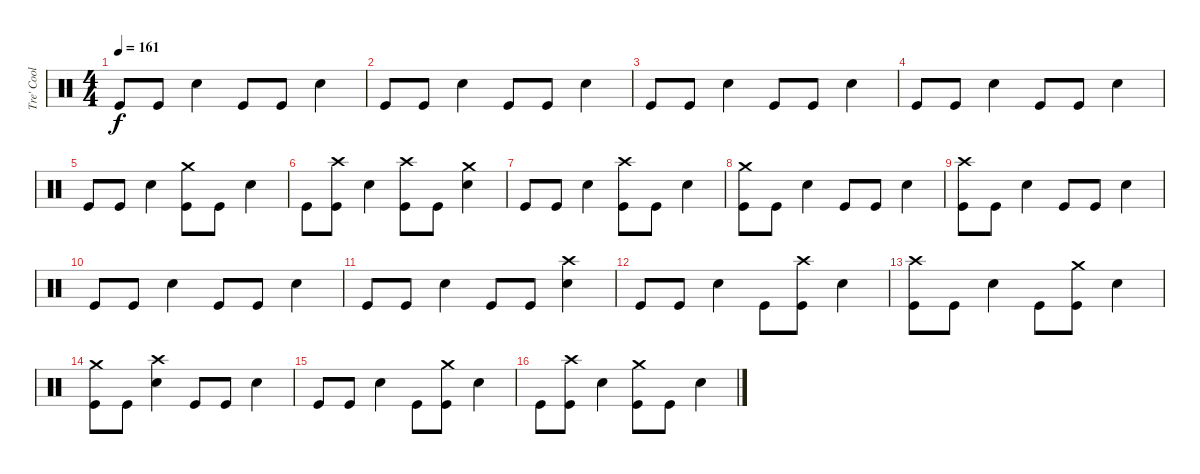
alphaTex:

\track ("Tre' Cool" "Tre' Cool") {instrument percussion}
\staff {score}
\articulation defaults
\ts (4 4)
\tempo 161
\clef neutral
\ks c "Kick (hit)".8{dy f} "Kick (hit)".8 "Snare (hit) 2".4 "Kick (hit)".8 "Kick (hit)".8 "Snare (hit) 2".4
|
"Kick (hit)".8 "Kick (hit)".8 "Snare (hit) 2".4 "Kick (hit)".8 "Kick (hit)".8 "Snare (hit) 2".4 |
"Kick (hit)".8 "Kick (hit)".8 "Snare (hit) 2".4 "Kick (hit)".8 "Kick (hit)".8 "Snare (hit) 2".4 |
"Kick (hit)".8 "Kick (hit)".8 "Snare (hit) 2".4 "Kick (hit)".8 "Kick (hit)".8 "Snare (hit) 2".4 |
"Kick (hit)".8 "Kick (hit)".8 "Snare (hit) 2".4 ("Kick (hit)" "Crash medium (hit)").8 "Kick (hit)".8 "Snare (hit) 2".4 |
"Kick (hit)".8 ("Kick (hit)" "Crash high (hit)").8 "Snare (hit) 2".4 ("Kick (hit)" "Crash high (hit)").8 "Kick (hit)".8 ("Snare (hit) 2" "Crash medium (hit)").4 |
"Kick (hit)".8 "Kick (hit)".8 "Snare (hit) 2".4 ("Crash high (hit)" "Kick (hit)").8 "Kick (hit)".8 "Snare (hit) 2".4 |
("Crash medium (hit)" "Kick (hit)").8 "Kick (hit)".8 "Snare (hit) 2".4 "Kick (hit)".8 "Kick (hit)".8 "Snare (hit) 2".4 |
("Crash high (hit)" "Kick (hit)").8 "Kick (hit)".8 "Snare (hit) 2".4 "Kick (hit)".8 "Kick (hit)".8 "Snare (hit) 2".4 |
"Kick (hit)".8 "Kick (hit)".8 "Snare (hit) 2".4 "Kick (hit)".8 "Kick (hit)".8 "Snare (hit) 2".4 |
"Kick (hit)".8 "Kick (hit)".8 "Snare (hit) 2".4 "Kick (hit)".8 "Kick (hit)".8 ("Snare (hit) 2" "Crash high (hit)").4 |
"Kick (hit)".8 "Kick (hit)".8 "Snare (hit) 2".4 "Kick (hit)".8 ("Kick (hit)" "Crash high (hit)").8 "Snare (hit) 2".4 |
("Kick (hit)" "Crash high (hit)").8 "Kick (hit)".8 "Snare (hit) 2".4 "Kick (hit)".8 ("Kick (hit)" "Crash medium (hit)").8 "Snare (hit) 2".4 |
("Crash medium (hit)" "Kick (hit)").8 "Kick (hit)".8 ("Crash high (hit)" "Snare (hit) 2").4 "Kick (hit)".8 "Kick (hit)".8 "Snare (hit) 2".4 |
"Kick (hit)".8 "Kick (hit)".8 "Snare (hit) 2".4 "Kick (hit)".8 ("Kick (hit)" "Crash medium (hit)").8 "Snare (hit) 2".4 |
"Kick (hit)".8 ("Kick (hit)" "Crash high (hit)").8 "Snare (hit) 2".4 ("Kick (hit)" "Crash medium (hit)").8 "Kick (hit)".8 "Snare (hit) 2".4
